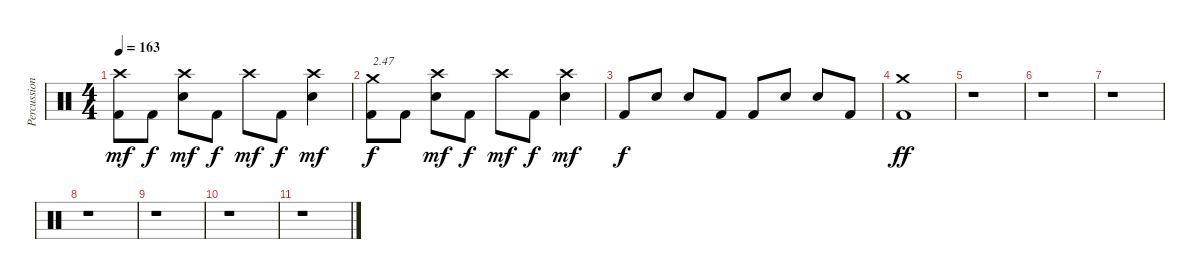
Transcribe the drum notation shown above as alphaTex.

\track ("Percussions" "Percussion") {instrument percussion}
\staff {score}
\articulation defaults
\ts (4 4)
\tempo 163
\clef neutral
\ks c
("Kick (hit) 2" "Crash high (hit)").8{dy mf} "Kick (hit) 2".8{dy f} ("Electric Snare (hit)" "Crash high (hit)").8{dy mf} "Kick (hit) 2".8{dy f} "Crash high (hit)".8{dy mf} "Kick (hit) 2".8{dy f} ("Electric Snare (hit)" "Crash high (hit)").4{dy mf} |
("Kick (hit) 2" "Crash medium (hit)").8{txt "2.47" dy f} "Kick (hit) 2".8 ("Electric Snare (hit)" "Crash high (hit)").8{dy mf} "Kick (hit) 2".8{dy f} "Crash high (hit)".8{dy mf} "Kick (hit) 2".8{dy f} ("Electric Snare (hit)" "Crash high (hit)").4{dy mf} |
"Kick (hit) 2".8{dy f} "Electric Snare (hit)".8 "Electric Snare (hit)".8 "Kick (hit) 2".8 "Kick (hit) 2".8 "Electric Snare (hit)".8 "Electric Snare (hit)".8 "Kick (hit) 2".8 |
("Kick (hit) 2" "Crash medium (hit)").1{dy ff} |
r.1 |
r.1 |
r.1 |
r.1 |
r.1 |
r.1 |
r.1
